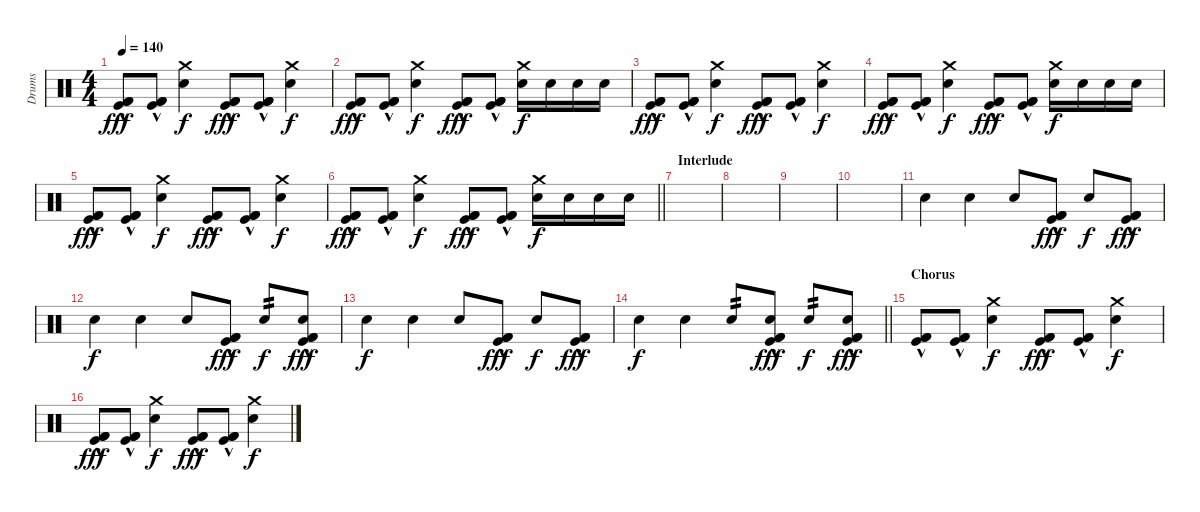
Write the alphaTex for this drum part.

\track ("Drums" "Drums") {instrument percussion}
\staff {score}
\articulation defaults
\ts (4 4)
\tempo 140
\clef neutral
\ks c
("Kick (hit) 2"{hac} "Kick (hit)"{hac} "Kick (hit) 2"{hac}).8{dy fff} ("Kick (hit) 2"{hac} "Kick (hit)"{hac} "Kick (hit) 2"{hac}).8 ("Snare (hit) 2" "Crash medium (hit)").4{dy f} ("Kick (hit) 2"{hac} "Kick (hit)"{hac} "Kick (hit) 2"{hac}).8{dy fff} ("Kick (hit) 2"{hac} "Kick (hit)"{hac} "Kick (hit) 2"{hac}).8 ("Snare (hit) 2" "Crash medium (hit)").4{dy f} |
("Kick (hit) 2"{hac} "Kick (hit)"{hac} "Kick (hit) 2"{hac}).8{dy fff} ("Kick (hit) 2"{hac} "Kick (hit)"{hac} "Kick (hit) 2"{hac}).8 ("Snare (hit) 2" "Crash medium (hit)").4{dy f} ("Kick (hit) 2"{hac} "Kick (hit)"{hac} "Kick (hit) 2"{hac}).8{dy fff} ("Kick (hit) 2"{hac} "Kick (hit)"{hac} "Kick (hit) 2"{hac}).8 ("Snare (hit) 2" "Crash medium (hit)").16{dy f} "Snare (hit) 2".16 "Snare (hit) 2".16 "Snare (hit) 2".16 |
("Kick (hit) 2"{hac} "Kick (hit)"{hac} "Kick (hit) 2"{hac}).8{dy fff} ("Kick (hit) 2"{hac} "Kick (hit)"{hac} "Kick (hit) 2"{hac}).8 ("Snare (hit) 2" "Crash medium (hit)").4{dy f} ("Kick (hit) 2"{hac} "Kick (hit)"{hac} "Kick (hit) 2"{hac}).8{dy fff} ("Kick (hit) 2"{hac} "Kick (hit)"{hac} "Kick (hit) 2"{hac}).8 ("Snare (hit) 2" "Crash medium (hit)").4{dy f} |
("Kick (hit) 2"{hac} "Kick (hit)"{hac} "Kick (hit) 2"{hac}).8{dy fff} ("Kick (hit) 2"{hac} "Kick (hit)"{hac} "Kick (hit) 2"{hac}).8 ("Snare (hit) 2" "Crash medium (hit)").4{dy f} ("Kick (hit) 2"{hac} "Kick (hit)"{hac} "Kick (hit) 2"{hac}).8{dy fff} ("Kick (hit) 2"{hac} "Kick (hit)"{hac} "Kick (hit) 2"{hac}).8 ("Snare (hit) 2" "Crash medium (hit)").16{dy f} "Snare (hit) 2".16 "Snare (hit) 2".16 "Snare (hit) 2".16 |
("Kick (hit) 2"{hac} "Kick (hit)"{hac} "Kick (hit) 2"{hac}).8{dy fff} ("Kick (hit) 2"{hac} "Kick (hit)"{hac} "Kick (hit) 2"{hac}).8 ("Snare (hit) 2" "Crash medium (hit)").4{dy f} ("Kick (hit) 2"{hac} "Kick (hit)"{hac} "Kick (hit) 2"{hac}).8{dy fff} ("Kick (hit) 2"{hac} "Kick (hit)"{hac} "Kick (hit) 2"{hac}).8 ("Snare (hit) 2" "Crash medium (hit)").4{dy f} |
\barLineRight lightlight
("Kick (hit) 2"{hac} "Kick (hit)"{hac} "Kick (hit) 2"{hac}).8{dy fff} ("Kick (hit) 2"{hac} "Kick (hit)"{hac} "Kick (hit) 2"{hac}).8 ("Snare (hit) 2" "Crash medium (hit)").4{dy f} ("Kick (hit) 2"{hac} "Kick (hit)"{hac} "Kick (hit) 2"{hac}).8{dy fff} ("Kick (hit) 2"{hac} "Kick (hit)"{hac} "Kick (hit) 2"{hac}).8 ("Snare (hit) 2" "Crash medium (hit)").16{dy f} "Snare (hit) 2".16 "Snare (hit) 2".16 "Snare (hit) 2".16 |
\section ("" "Interlude")
|
|
|
|
"Snare (hit) 2".4 "Snare (hit) 2".4 "Snare (hit) 2".8 ("Kick (hit) 2"{hac} "Kick (hit)"{hac} "Kick (hit) 2"{hac}).8{dy fff} "Snare (hit) 2".8{dy f} ("Kick (hit) 2"{hac} "Kick (hit)"{hac} "Kick (hit) 2"{hac}).8{dy fff} |
"Snare (hit) 2".4{dy f} "Snare (hit) 2".4 "Snare (hit) 2".8 ("Kick (hit) 2"{hac} "Kick (hit)"{hac} "Kick (hit) 2"{hac}).8{dy fff} "Snare (hit) 2".8{tp 2 dy f} ("Snare (hit) 2" "Kick (hit) 2"{hac} "Kick (hit)"{hac} "Kick (hit) 2"{hac}).8{dy fff} |
"Snare (hit) 2".4{dy f} "Snare (hit) 2".4 "Snare (hit) 2".8 ("Kick (hit) 2"{hac} "Kick (hit)"{hac} "Kick (hit) 2"{hac}).8{dy fff} "Snare (hit) 2".8{dy f} ("Kick (hit) 2"{hac} "Kick (hit)"{hac} "Kick (hit) 2"{hac}).8{dy fff} |
\barLineRight lightlight "Snare (hit) 2".4{dy f} "Snare (hit) 2".4 "Snare (hit) 2".8{tp 2}
("Snare (hit) 2" "Kick (hit) 2"{hac} "Kick (hit)"{hac} "Kick (hit) 2"{hac}).8{dy fff} "Snare (hit) 2".8{tp 2 dy f} ("Snare (hit) 2" "Kick (hit) 2"{hac} "Kick (hit)"{hac} "Kick (hit) 2"{hac}).8{dy fff} |
\section ("" "Chorus")
("Kick (hit) 2"{hac} "Kick (hit)"{hac} "Kick (hit) 2"{hac}).8 ("Kick (hit) 2"{hac} "Kick (hit)"{hac} "Kick (hit) 2"{hac}).8 ("Snare (hit) 2" "Crash medium (hit)").4{dy f} ("Kick (hit) 2"{hac} "Kick (hit)"{hac} "Kick (hit) 2"{hac}).8{dy fff} ("Kick (hit) 2"{hac} "Kick (hit)"{hac} "Kick (hit) 2"{hac}).8 ("Snare (hit) 2" "Crash medium (hit)").4{dy f} |
("Kick (hit) 2"{hac} "Kick (hit)"{hac} "Kick (hit) 2"{hac}).8{dy fff} ("Kick (hit) 2"{hac} "Kick (hit)"{hac} "Kick (hit) 2"{hac}).8 ("Snare (hit) 2" "Crash medium (hit)").4{dy f} ("Kick (hit) 2"{hac} "Kick (hit)"{hac} "Kick (hit) 2"{hac}).8{dy fff} ("Kick (hit) 2"{hac} "Kick (hit)"{hac} "Kick (hit) 2"{hac}).8 ("Snare (hit) 2" "Crash medium (hit)").4{dy f}
